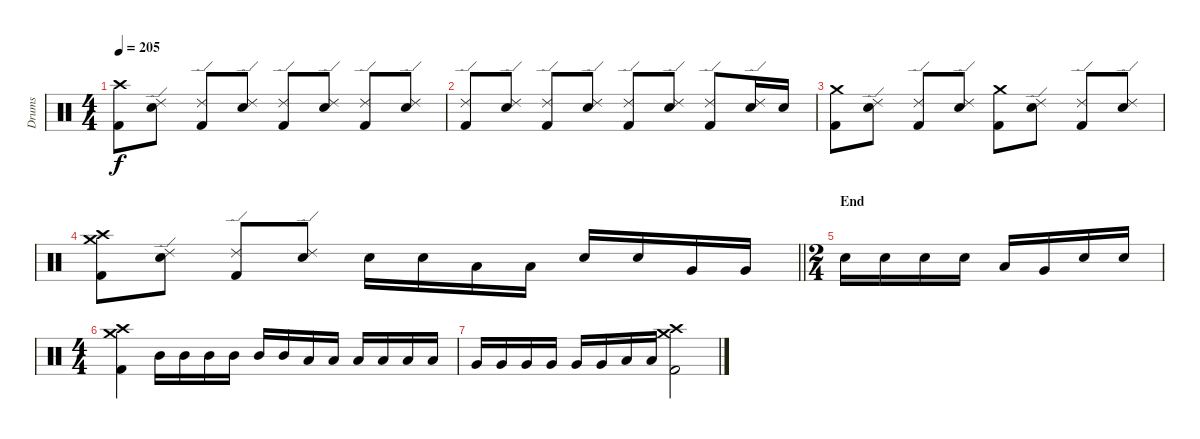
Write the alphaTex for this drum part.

\track ("Drums" "Drums") {instrument percussion}
\staff {score}
\articulation defaults
\ts (4 4)
\section ("" "")
\tempo 205
\clef neutral
\ks c
("Kick (hit) 2" "Crash high (hit)").8{dy f} ("Snare (hit) 2" "Ride (edge) 2").8 ("Kick (hit) 2" "Ride (edge) 2").8 ("Snare (hit) 2" "Ride (edge) 2").8 ("Kick (hit) 2" "Ride (edge) 2").8 ("Snare (hit) 2" "Ride (edge) 2").8 ("Kick (hit) 2" "Ride (edge) 2").8 ("Snare (hit) 2" "Ride (edge) 2").8 |
("Kick (hit) 2" "Ride (edge) 2").8 ("Snare (hit) 2" "Ride (edge) 2").8 ("Kick (hit) 2" "Ride (edge) 2").8 ("Snare (hit) 2" "Ride (edge) 2").8 ("Kick (hit) 2" "Ride (edge) 2").8 ("Snare (hit) 2" "Ride (edge) 2").8 ("Kick (hit) 2" "Ride (edge) 2").8 ("Snare (hit) 2" "Ride (edge) 2").16 "Snare (hit) 2".16 |
("Kick (hit) 2" "Crash medium (hit)").8 ("Snare (hit) 2" "Ride (edge) 2").8 ("Kick (hit) 2" "Ride (edge) 2").8 ("Snare (hit) 2" "Ride (edge) 2").8 ("Kick (hit) 2" "Crash medium (hit)").8 ("Snare (hit) 2" "Ride (edge) 2").8 ("Kick (hit) 2" "Ride (edge) 2").8 ("Snare (hit) 2" "Ride (edge) 2").8 |
\barLineRight lightlight
("Kick (hit) 2" "Crash medium (hit)" "Crash high (hit)").8 ("Snare (hit) 2" "Ride (edge) 2").8 ("Kick (hit) 2" "Ride (edge) 2").8 ("Snare (hit) 2" "Ride (edge) 2").8 "Snare (hit) 2".16 "Snare (hit) 2".16 "Low Tom (hit)".16 "Low Tom (hit)".16 "Snare (hit) 2".16 "Snare (hit) 2".16 "Very Low Tom (hit)".16 "Very Low Tom (hit)".16 |
\ts (2 4)
\section ("" "End")
"Snare (hit) 2".16 "Snare (hit) 2".16 "Snare (hit) 2".16 "Snare (hit) 2".16 "Low Tom (hit)".16 "Very Low Tom (hit)".16 "Snare (hit) 2".16 "Snare (hit) 2".16 |
\ts (4 4)
("Kick (hit) 2" "Crash medium (hit)" "Crash high (hit)").4 "Mid Tom (hit)".16 "Mid Tom (hit)".16 "Mid Tom (hit)".16 "Mid Tom (hit)".16 "Mid Tom (hit)".16 "Mid Tom (hit)".16 "Low Tom (hit)".16 "Low Tom (hit)".16 "Low Tom (hit)".16 "Low Tom (hit)".16 "Low Tom (hit)".16 "Low Tom (hit)".16 |
"Very Low Tom (hit)".16 "Very Low Tom (hit)".16 "Very Low Tom (hit)".16 "Very Low Tom (hit)".16 "Very Low Tom (hit)".16 "Very Low Tom (hit)".16 "Low Floor Tom (hit)".16 "Low Floor Tom (hit)".16 ("Kick (hit) 2" "Crash medium (hit)" "Crash high (hit)").2
